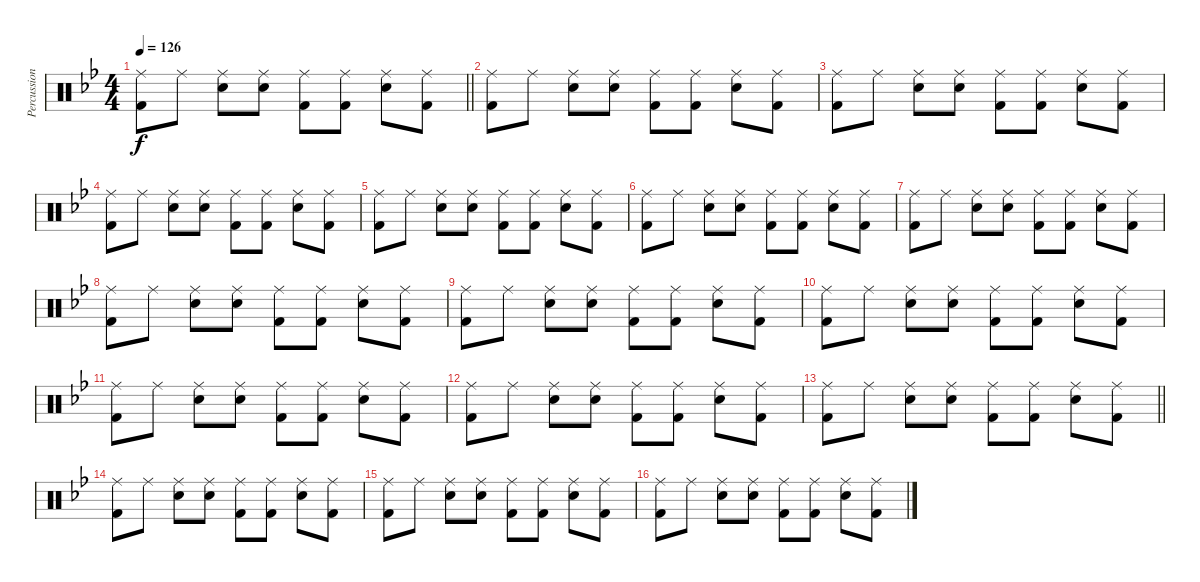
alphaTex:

\track ("Percussion" "Percussion") {instrument percussion}
\staff {score}
\articulation defaults
\ts (4 4)
\tempo 126
\clef neutral
\barLineRight lightlight
\ks bb
("Ride (middle)" "Kick (hit) 2").8{dy f} "Ride (middle)".8 ("Ride (middle)" "Snare (hit) 2").8 ("Ride (middle)" "Snare (hit) 2").8 ("Ride (middle)" "Kick (hit) 2").8 ("Ride (middle)" "Kick (hit) 2").8 ("Ride (middle)" "Snare (hit) 2").8 ("Ride (middle)" "Kick (hit) 2").8 |
("Ride (middle)" "Kick (hit) 2").8 "Ride (middle)".8 ("Ride (middle)" "Snare (hit) 2").8 ("Ride (middle)" "Snare (hit) 2").8 ("Ride (middle)" "Kick (hit) 2").8 ("Ride (middle)" "Kick (hit) 2").8 ("Ride (middle)" "Snare (hit) 2").8 ("Ride (middle)" "Kick (hit) 2").8 |
("Ride (middle)" "Kick (hit) 2").8 "Ride (middle)".8 ("Ride (middle)" "Snare (hit) 2").8 ("Ride (middle)" "Snare (hit) 2").8 ("Ride (middle)" "Kick (hit) 2").8 ("Ride (middle)" "Kick (hit) 2").8 ("Ride (middle)" "Snare (hit) 2").8 ("Ride (middle)" "Kick (hit) 2").8 |
("Ride (middle)" "Kick (hit) 2").8 "Ride (middle)".8 ("Ride (middle)" "Snare (hit) 2").8 ("Ride (middle)" "Snare (hit) 2").8 ("Ride (middle)" "Kick (hit) 2").8 ("Ride (middle)" "Kick (hit) 2").8 ("Ride (middle)" "Snare (hit) 2").8 ("Ride (middle)" "Kick (hit) 2").8 |
("Ride (middle)" "Kick (hit) 2").8 "Ride (middle)".8 ("Ride (middle)" "Snare (hit) 2").8 ("Ride (middle)" "Snare (hit) 2").8 ("Ride (middle)" "Kick (hit) 2").8 ("Ride (middle)" "Kick (hit) 2").8 ("Ride (middle)" "Snare (hit) 2").8 ("Ride (middle)" "Kick (hit) 2").8 |
("Ride (middle)" "Kick (hit) 2").8 "Ride (middle)".8 ("Ride (middle)" "Snare (hit) 2").8 ("Ride (middle)" "Snare (hit) 2").8 ("Ride (middle)" "Kick (hit) 2").8 ("Ride (middle)" "Kick (hit) 2").8 ("Ride (middle)" "Snare (hit) 2").8 ("Ride (middle)" "Kick (hit) 2").8 |
("Ride (middle)" "Kick (hit) 2").8 "Ride (middle)".8 ("Ride (middle)" "Snare (hit) 2").8 ("Ride (middle)" "Snare (hit) 2").8 ("Ride (middle)" "Kick (hit) 2").8 ("Ride (middle)" "Kick (hit) 2").8 ("Ride (middle)" "Snare (hit) 2").8 ("Ride (middle)" "Kick (hit) 2").8 |
("Ride (middle)" "Kick (hit) 2").8 "Ride (middle)".8 ("Ride (middle)" "Snare (hit) 2").8 ("Ride (middle)" "Snare (hit) 2").8 ("Ride (middle)" "Kick (hit) 2").8 ("Ride (middle)" "Kick (hit) 2").8 ("Ride (middle)" "Snare (hit) 2").8 ("Ride (middle)" "Kick (hit) 2").8 |
("Ride (middle)" "Kick (hit) 2").8 "Ride (middle)".8 ("Ride (middle)" "Snare (hit) 2").8 ("Ride (middle)" "Snare (hit) 2").8 ("Ride (middle)" "Kick (hit) 2").8 ("Ride (middle)" "Kick (hit) 2").8 ("Ride (middle)" "Snare (hit) 2").8 ("Ride (middle)" "Kick (hit) 2").8 |
("Ride (middle)" "Kick (hit) 2").8 "Ride (middle)".8 ("Ride (middle)" "Snare (hit) 2").8 ("Ride (middle)" "Snare (hit) 2").8 ("Ride (middle)" "Kick (hit) 2").8 ("Ride (middle)" "Kick (hit) 2").8 ("Ride (middle)" "Snare (hit) 2").8 ("Ride (middle)" "Kick (hit) 2").8 |
("Ride (middle)" "Kick (hit) 2").8 "Ride (middle)".8 ("Ride (middle)" "Snare (hit) 2").8 ("Ride (middle)" "Snare (hit) 2").8 ("Ride (middle)" "Kick (hit) 2").8 ("Ride (middle)" "Kick (hit) 2").8 ("Ride (middle)" "Snare (hit) 2").8 ("Ride (middle)" "Kick (hit) 2").8 |
("Ride (middle)" "Kick (hit) 2").8 "Ride (middle)".8 ("Ride (middle)" "Snare (hit) 2").8 ("Ride (middle)" "Snare (hit) 2").8 ("Ride (middle)" "Kick (hit) 2").8 ("Ride (middle)" "Kick (hit) 2").8 ("Ride (middle)" "Snare (hit) 2").8 ("Ride (middle)" "Kick (hit) 2").8 |
\barLineRight lightlight
("Ride (middle)" "Kick (hit) 2").8 "Ride (middle)".8 ("Ride (middle)" "Snare (hit) 2").8 ("Ride (middle)" "Snare (hit) 2").8 ("Ride (middle)" "Kick (hit) 2").8 ("Ride (middle)" "Kick (hit) 2").8 ("Ride (middle)" "Snare (hit) 2").8 ("Ride (middle)" "Kick (hit) 2").8 |
("Ride (middle)" "Kick (hit) 2").8 "Ride (middle)".8 ("Ride (middle)" "Snare (hit) 2").8 ("Ride (middle)" "Snare (hit) 2").8 ("Ride (middle)" "Kick (hit) 2").8 ("Ride (middle)" "Kick (hit) 2").8 ("Ride (middle)" "Snare (hit) 2").8 ("Ride (middle)" "Kick (hit) 2").8 |
("Ride (middle)" "Kick (hit) 2").8 "Ride (middle)".8 ("Ride (middle)" "Snare (hit) 2").8 ("Ride (middle)" "Snare (hit) 2").8 ("Ride (middle)" "Kick (hit) 2").8 ("Ride (middle)" "Kick (hit) 2").8 ("Ride (middle)" "Snare (hit) 2").8 ("Ride (middle)" "Kick (hit) 2").8 |
("Ride (middle)" "Kick (hit) 2").8 "Ride (middle)".8 ("Ride (middle)" "Snare (hit) 2").8 ("Ride (middle)" "Snare (hit) 2").8 ("Ride (middle)" "Kick (hit) 2").8 ("Ride (middle)" "Kick (hit) 2").8 ("Ride (middle)" "Snare (hit) 2").8 ("Ride (middle)" "Kick (hit) 2").8
